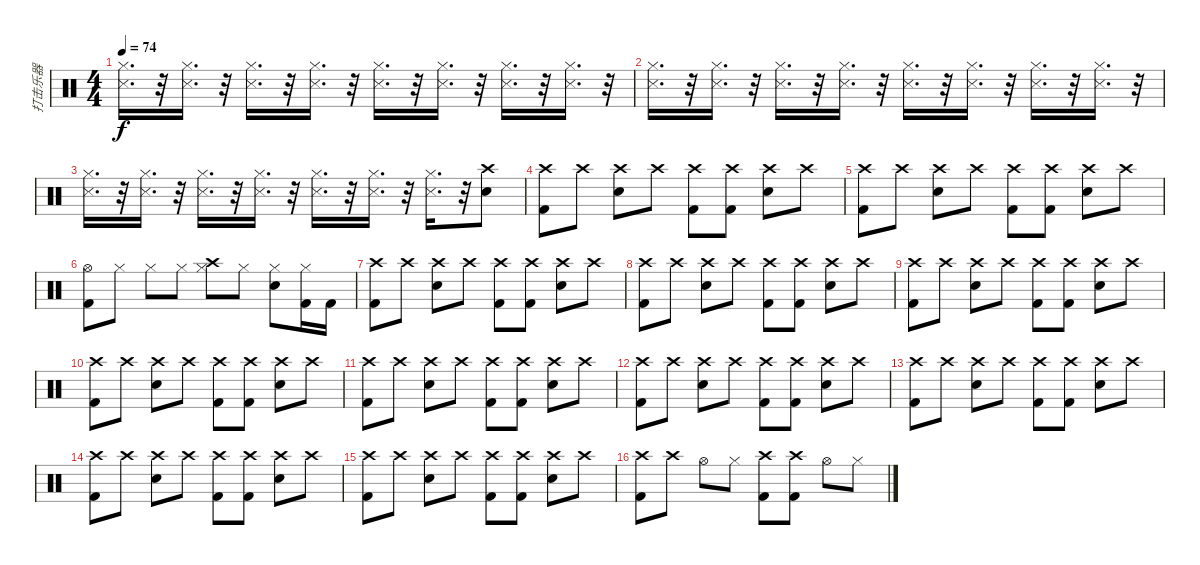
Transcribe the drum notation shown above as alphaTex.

\track ("打击乐器" "打击乐器") {instrument percussion}
\staff {score}
\articulation defaults
\ts (4 4)
\tempo 74
\clef neutral
\ks c
("Hi-Hat (closed)" "Snare (side stick) 3").16{d dy f} r.32 ("Hi-Hat (closed)" "Snare (side stick) 3").16{d} r.32 ("Hi-Hat (closed)" "Snare (side stick) 3").16{d} r.32 ("Hi-Hat (closed)" "Snare (side stick) 3").16{d} r.32 ("Hi-Hat (closed)" "Snare (side stick) 3").16{d} r.32 ("Hi-Hat (closed)" "Snare (side stick) 3").16{d} r.32 ("Hi-Hat (closed)" "Snare (side stick) 3").16{d} r.32 ("Hi-Hat (closed)" "Snare (side stick) 3").16{d} r.32 |
("Hi-Hat (closed)" "Snare (side stick) 3").16{d} r.32 ("Hi-Hat (closed)" "Snare (side stick) 3").16{d} r.32 ("Hi-Hat (closed)" "Snare (side stick) 3").16{d} r.32 ("Hi-Hat (closed)" "Snare (side stick) 3").16{d} r.32 ("Hi-Hat (closed)" "Snare (side stick) 3").16{d} r.32 ("Hi-Hat (closed)" "Snare (side stick) 3").16{d} r.32 ("Hi-Hat (closed)" "Snare (side stick) 3").16{d} r.32 ("Hi-Hat (closed)" "Snare (side stick) 3").16{d} r.32 |
("Hi-Hat (closed)" "Snare (side stick) 3").16{d} r.32 ("Hi-Hat (closed)" "Snare (side stick) 3").16{d} r.32 ("Hi-Hat (closed)" "Snare (side stick) 3").16{d} r.32 ("Hi-Hat (closed)" "Snare (side stick) 3").16{d} r.32 ("Hi-Hat (closed)" "Snare (side stick) 3").16{d} r.32 ("Hi-Hat (closed)" "Snare (side stick) 3").16{d} r.32 ("Hi-Hat (closed)" "Snare (side stick) 3").16{d} r.32 ("Crash high (hit)" "Snare (hit) 2").8 |
("Crash high (hit)" "Kick (hit) 2").8 "Crash high (hit)".8 ("Crash high (hit)" "Snare (hit) 2").8 "Crash high (hit)".8 ("Crash high (hit)" "Kick (hit) 2").8 ("Crash high (hit)" "Kick (hit) 2").8 ("Crash high (hit)" "Snare (hit) 2").8 "Crash high (hit)".8 |
("Crash high (hit)" "Kick (hit) 2").8 "Crash high (hit)".8 ("Crash high (hit)" "Snare (hit) 2").8 "Crash high (hit)".8 ("Crash high (hit)" "Kick (hit) 2").8 ("Crash high (hit)" "Kick (hit) 2").8 ("Crash high (hit)" "Snare (hit) 2").8 "Crash high (hit)".8 |
("Hi-Hat (open)" "Kick (hit) 2").8 "Hi-Hat (closed)".8 "Hi-Hat (closed)".8 "Hi-Hat (closed)".8 ("Crash high (hit)" "Hi-Hat (closed)").8 "Hi-Hat (closed)".8 ("Hi-Hat (closed)" "Snare (hit) 2").8 ("Hi-Hat (closed)" "Kick (hit) 2").16 "Kick (hit) 2".16 |
("Crash high (hit)" "Kick (hit) 2").8 "Crash high (hit)".8 ("Crash high (hit)" "Snare (hit) 2").8 "Crash high (hit)".8 ("Crash high (hit)" "Kick (hit) 2").8 ("Crash high (hit)" "Kick (hit) 2").8 ("Crash high (hit)" "Snare (hit) 2").8 "Crash high (hit)".8 |
("Crash high (hit)" "Kick (hit) 2").8 "Crash high (hit)".8 ("Crash high (hit)" "Snare (hit) 2").8 "Crash high (hit)".8 ("Crash high (hit)" "Kick (hit) 2").8 ("Crash high (hit)" "Kick (hit) 2").8 ("Crash high (hit)" "Snare (hit) 2").8 "Crash high (hit)".8 |
("Crash high (hit)" "Kick (hit) 2").8 "Crash high (hit)".8 ("Crash high (hit)" "Snare (hit) 2").8 "Crash high (hit)".8 ("Crash high (hit)" "Kick (hit) 2").8 ("Crash high (hit)" "Kick (hit) 2").8 ("Crash high (hit)" "Snare (hit) 2").8 "Crash high (hit)".8 |
("Crash high (hit)" "Kick (hit) 2").8 "Crash high (hit)".8 ("Crash high (hit)" "Snare (hit) 2").8 "Crash high (hit)".8 ("Crash high (hit)" "Kick (hit) 2").8 ("Crash high (hit)" "Kick (hit) 2").8 ("Crash high (hit)" "Snare (hit) 2").8 "Crash high (hit)".8 |
("Crash high (hit)" "Kick (hit) 2").8 "Crash high (hit)".8 ("Crash high (hit)" "Snare (hit) 2").8 "Crash high (hit)".8 ("Crash high (hit)" "Kick (hit) 2").8 ("Crash high (hit)" "Kick (hit) 2").8 ("Crash high (hit)" "Snare (hit) 2").8 "Crash high (hit)".8 |
("Crash high (hit)" "Kick (hit) 2").8 "Crash high (hit)".8 ("Crash high (hit)" "Snare (hit) 2").8 "Crash high (hit)".8 ("Crash high (hit)" "Kick (hit) 2").8 ("Crash high (hit)" "Kick (hit) 2").8 ("Crash high (hit)" "Snare (hit) 2").8 "Crash high (hit)".8 |
("Crash high (hit)" "Kick (hit) 2").8 "Crash high (hit)".8 ("Crash high (hit)" "Snare (hit) 2").8 "Crash high (hit)".8 ("Crash high (hit)" "Kick (hit) 2").8 ("Crash high (hit)" "Kick (hit) 2").8 ("Crash high (hit)" "Snare (hit) 2").8 "Crash high (hit)".8 |
("Crash high (hit)" "Kick (hit) 2").8 "Crash high (hit)".8 ("Crash high (hit)" "Snare (hit) 2").8 "Crash high (hit)".8 ("Crash high (hit)" "Kick (hit) 2").8 ("Crash high (hit)" "Kick (hit) 2").8 ("Crash high (hit)" "Snare (hit) 2").8 "Crash high (hit)".8 |
("Crash high (hit)" "Kick (hit) 2").8 "Crash high (hit)".8 ("Crash high (hit)" "Snare (hit) 2").8 "Crash high (hit)".8 ("Crash high (hit)" "Kick (hit) 2").8 ("Crash high (hit)" "Kick (hit) 2").8 ("Crash high (hit)" "Snare (hit) 2").8 "Crash high (hit)".8 |
("Crash high (hit)" "Kick (hit) 2").8 "Crash high (hit)".8 "Hi-Hat (open)".8 "Hi-Hat (closed)".8 ("Crash high (hit)" "Kick (hit) 2").8 ("Crash high (hit)" "Kick (hit) 2").8 "Hi-Hat (open)".8 "Hi-Hat (closed)".8
